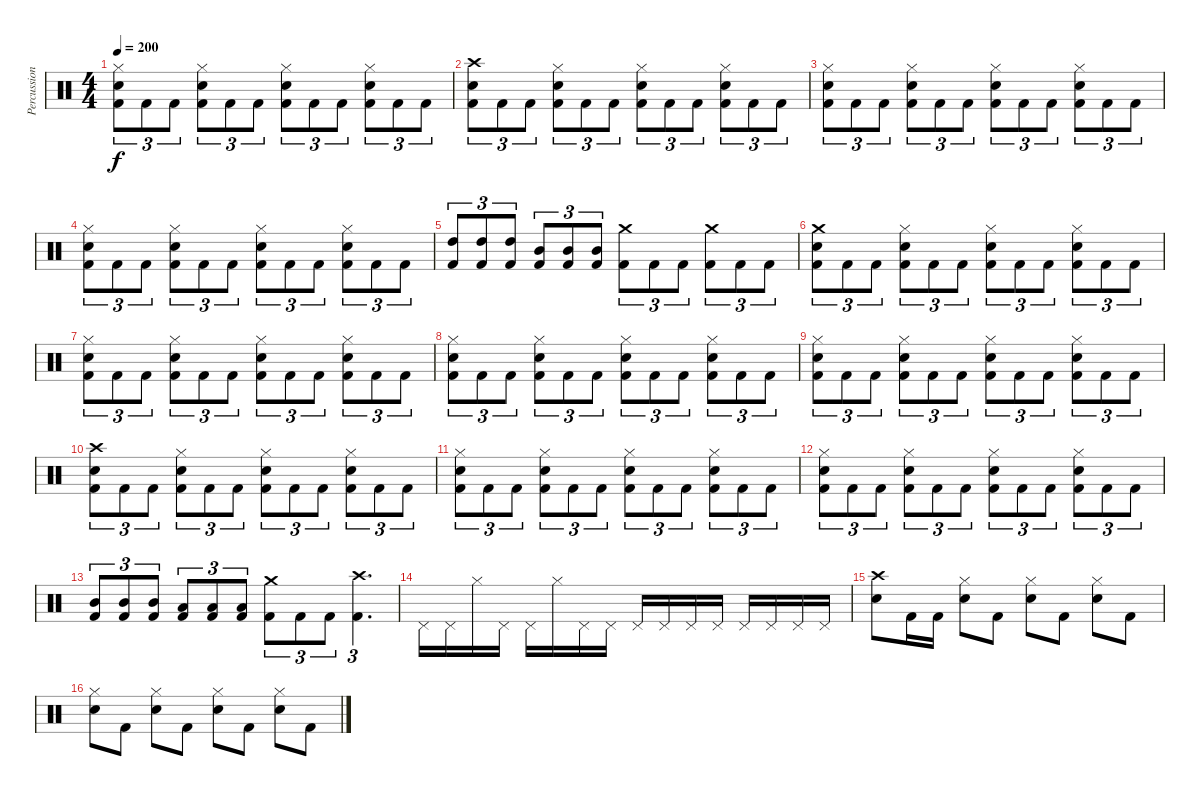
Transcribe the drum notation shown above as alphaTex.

\track ("Percussion" "Percussion") {instrument percussion}
\staff {score}
\articulation defaults
\ts (4 4)
\tempo 200
\clef neutral
\ks c
("Hi-Hat (closed)" "Snare (hit) 2" "Kick (hit) 2").8{tu (3 2) dy f} "Kick (hit) 2".8{tu (3 2)} "Kick (hit) 2".8{tu (3 2)} ("Hi-Hat (closed)" "Snare (hit) 2" "Kick (hit) 2").8{tu (3 2)} "Kick (hit) 2".8{tu (3 2)} "Kick (hit) 2".8{tu (3 2)} ("Hi-Hat (closed)" "Snare (hit) 2" "Kick (hit) 2").8{tu (3 2)} "Kick (hit) 2".8{tu (3 2)} "Kick (hit) 2".8{tu (3 2)} ("Hi-Hat (closed)" "Snare (hit) 2" "Kick (hit) 2").8{tu (3 2)} "Kick (hit) 2".8{tu (3 2)} "Kick (hit) 2".8{tu (3 2)} |
("Crash high (hit)" "Snare (hit) 2" "Kick (hit) 2").8{tu (3 2)} "Kick (hit) 2".8{tu (3 2)} "Kick (hit) 2".8{tu (3 2)} ("Hi-Hat (closed)" "Snare (hit) 2" "Kick (hit) 2").8{tu (3 2)} "Kick (hit) 2".8{tu (3 2)} "Kick (hit) 2".8{tu (3 2)} ("Hi-Hat (closed)" "Snare (hit) 2" "Kick (hit) 2").8{tu (3 2)} "Kick (hit) 2".8{tu (3 2)} "Kick (hit) 2".8{tu (3 2)} ("Hi-Hat (closed)" "Snare (hit) 2" "Kick (hit) 2").8{tu (3 2)} "Kick (hit) 2".8{tu (3 2)} "Kick (hit) 2".8{tu (3 2)} |
("Hi-Hat (closed)" "Snare (hit) 2" "Kick (hit) 2").8{tu (3 2)} "Kick (hit) 2".8{tu (3 2)} "Kick (hit) 2".8{tu (3 2)} ("Hi-Hat (closed)" "Snare (hit) 2" "Kick (hit) 2").8{tu (3 2)} "Kick (hit) 2".8{tu (3 2)} "Kick (hit) 2".8{tu (3 2)} ("Hi-Hat (closed)" "Snare (hit) 2" "Kick (hit) 2").8{tu (3 2)} "Kick (hit) 2".8{tu (3 2)} "Kick (hit) 2".8{tu (3 2)} ("Hi-Hat (closed)" "Snare (hit) 2" "Kick (hit) 2").8{tu (3 2)} "Kick (hit) 2".8{tu (3 2)} "Kick (hit) 2".8{tu (3 2)} |
("Hi-Hat (closed)" "Snare (hit) 2" "Kick (hit) 2").8{tu (3 2)} "Kick (hit) 2".8{tu (3 2)} "Kick (hit) 2".8{tu (3 2)} ("Hi-Hat (closed)" "Snare (hit) 2" "Kick (hit) 2").8{tu (3 2)} "Kick (hit) 2".8{tu (3 2)} "Kick (hit) 2".8{tu (3 2)} ("Hi-Hat (closed)" "Snare (hit) 2" "Kick (hit) 2").8{tu (3 2)} "Kick (hit) 2".8{tu (3 2)} "Kick (hit) 2".8{tu (3 2)} ("Hi-Hat (closed)" "Snare (hit) 2" "Kick (hit) 2").8{tu (3 2)} "Kick (hit) 2".8{tu (3 2)} "Kick (hit) 2".8{tu (3 2)} |
("High Tom (hit)" "Kick (hit) 2").8{tu (3 2)} ("High Tom (hit)" "Kick (hit) 2").8{tu (3 2)} ("High Tom (hit)" "Kick (hit) 2").8{tu (3 2)} ("Mid Tom (hit)" "Kick (hit) 2").8{tu (3 2)} ("Mid Tom (hit)" "Kick (hit) 2").8{tu (3 2)} ("Mid Tom (hit)" "Kick (hit) 2").8{tu (3 2)} ("Crash medium (hit)" "Kick (hit) 2").8{tu (3 2)} "Kick (hit) 2".8{tu (3 2)} "Kick (hit) 2".8{tu (3 2)} ("Crash medium (hit)" "Kick (hit) 2").8{tu (3 2)} "Kick (hit) 2".8{tu (3 2)} "Kick (hit) 2".8{tu (3 2)} |
("Crash medium (hit)" "Snare (hit) 2" "Kick (hit) 2").8{tu (3 2)} "Kick (hit) 2".8{tu (3 2)} "Kick (hit) 2".8{tu (3 2)} ("Hi-Hat (closed)" "Snare (hit) 2" "Kick (hit) 2").8{tu (3 2)} "Kick (hit) 2".8{tu (3 2)} "Kick (hit) 2".8{tu (3 2)} ("Hi-Hat (closed)" "Snare (hit) 2" "Kick (hit) 2").8{tu (3 2)} "Kick (hit) 2".8{tu (3 2)} "Kick (hit) 2".8{tu (3 2)} ("Hi-Hat (closed)" "Snare (hit) 2" "Kick (hit) 2").8{tu (3 2)} "Kick (hit) 2".8{tu (3 2)} "Kick (hit) 2".8{tu (3 2)} |
("Hi-Hat (closed)" "Snare (hit) 2" "Kick (hit) 2").8{tu (3 2)} "Kick (hit) 2".8{tu (3 2)} "Kick (hit) 2".8{tu (3 2)} ("Hi-Hat (closed)" "Snare (hit) 2" "Kick (hit) 2").8{tu (3 2)} "Kick (hit) 2".8{tu (3 2)} "Kick (hit) 2".8{tu (3 2)} ("Hi-Hat (closed)" "Snare (hit) 2" "Kick (hit) 2").8{tu (3 2)} "Kick (hit) 2".8{tu (3 2)} "Kick (hit) 2".8{tu (3 2)} ("Hi-Hat (closed)" "Snare (hit) 2" "Kick (hit) 2").8{tu (3 2)} "Kick (hit) 2".8{tu (3 2)} "Kick (hit) 2".8{tu (3 2)} |
("Hi-Hat (closed)" "Snare (hit) 2" "Kick (hit) 2").8{tu (3 2)} "Kick (hit) 2".8{tu (3 2)} "Kick (hit) 2".8{tu (3 2)} ("Hi-Hat (closed)" "Snare (hit) 2" "Kick (hit) 2").8{tu (3 2)} "Kick (hit) 2".8{tu (3 2)} "Kick (hit) 2".8{tu (3 2)} ("Hi-Hat (closed)" "Snare (hit) 2" "Kick (hit) 2").8{tu (3 2)} "Kick (hit) 2".8{tu (3 2)} "Kick (hit) 2".8{tu (3 2)} ("Hi-Hat (closed)" "Snare (hit) 2" "Kick (hit) 2").8{tu (3 2)} "Kick (hit) 2".8{tu (3 2)} "Kick (hit) 2".8{tu (3 2)} |
("Hi-Hat (closed)" "Snare (hit) 2" "Kick (hit) 2").8{tu (3 2)} "Kick (hit) 2".8{tu (3 2)} "Kick (hit) 2".8{tu (3 2)} ("Hi-Hat (closed)" "Snare (hit) 2" "Kick (hit) 2").8{tu (3 2)} "Kick (hit) 2".8{tu (3 2)} "Kick (hit) 2".8{tu (3 2)} ("Hi-Hat (closed)" "Snare (hit) 2" "Kick (hit) 2").8{tu (3 2)} "Kick (hit) 2".8{tu (3 2)} "Kick (hit) 2".8{tu (3 2)} ("Hi-Hat (closed)" "Snare (hit) 2" "Kick (hit) 2").8{tu (3 2)} "Kick (hit) 2".8{tu (3 2)} "Kick (hit) 2".8{tu (3 2)} |
("Crash high (hit)" "Snare (hit) 2" "Kick (hit) 2").8{tu (3 2)} "Kick (hit) 2".8{tu (3 2)} "Kick (hit) 2".8{tu (3 2)} ("Hi-Hat (closed)" "Snare (hit) 2" "Kick (hit) 2").8{tu (3 2)} "Kick (hit) 2".8{tu (3 2)} "Kick (hit) 2".8{tu (3 2)} ("Hi-Hat (closed)" "Snare (hit) 2" "Kick (hit) 2").8{tu (3 2)} "Kick (hit) 2".8{tu (3 2)} "Kick (hit) 2".8{tu (3 2)} ("Hi-Hat (closed)" "Snare (hit) 2" "Kick (hit) 2").8{tu (3 2)} "Kick (hit) 2".8{tu (3 2)} "Kick (hit) 2".8{tu (3 2)} |
("Hi-Hat (closed)" "Snare (hit) 2" "Kick (hit) 2").8{tu (3 2)} "Kick (hit) 2".8{tu (3 2)} "Kick (hit) 2".8{tu (3 2)} ("Hi-Hat (closed)" "Snare (hit) 2" "Kick (hit) 2").8{tu (3 2)} "Kick (hit) 2".8{tu (3 2)} "Kick (hit) 2".8{tu (3 2)} ("Hi-Hat (closed)" "Snare (hit) 2" "Kick (hit) 2").8{tu (3 2)} "Kick (hit) 2".8{tu (3 2)} "Kick (hit) 2".8{tu (3 2)} ("Hi-Hat (closed)" "Snare (hit) 2" "Kick (hit) 2").8{tu (3 2)} "Kick (hit) 2".8{tu (3 2)} "Kick (hit) 2".8{tu (3 2)} |
("Hi-Hat (closed)" "Snare (hit) 2" "Kick (hit) 2").8{tu (3 2)} "Kick (hit) 2".8{tu (3 2)} "Kick (hit) 2".8{tu (3 2)} ("Hi-Hat (closed)" "Snare (hit) 2" "Kick (hit) 2").8{tu (3 2)} "Kick (hit) 2".8{tu (3 2)} "Kick (hit) 2".8{tu (3 2)} ("Hi-Hat (closed)" "Snare (hit) 2" "Kick (hit) 2").8{tu (3 2)} "Kick (hit) 2".8{tu (3 2)} "Kick (hit) 2".8{tu (3 2)} ("Hi-Hat (closed)" "Snare (hit) 2" "Kick (hit) 2").8{tu (3 2)} "Kick (hit) 2".8{tu (3 2)} "Kick (hit) 2".8{tu (3 2)} |
("Mid Tom (hit)" "Kick (hit) 2").8{tu (3 2)} ("Mid Tom (hit)" "Kick (hit) 2").8{tu (3 2)} ("Mid Tom (hit)" "Kick (hit) 2").8{tu (3 2)} ("Low Tom (hit)" "Kick (hit) 2").8{tu (3 2)} ("Low Tom (hit)" "Kick (hit) 2").8{tu (3 2)} ("Low Tom (hit)" "Kick (hit) 2").8{tu (3 2)} ("Crash medium (hit)" "Kick (hit) 2").8{tu (3 2)} "Kick (hit) 2".8{tu (3 2)} "Kick (hit) 2".8{tu (3 2)} ("Crash high (hit)" "Kick (hit) 2").4{d tu (3 2)} |
"Pedal Hi-Hat (hit)".16 "Pedal Hi-Hat (hit)".16 "Hi-Hat (closed)".16 "Pedal Hi-Hat (hit)".16 "Pedal Hi-Hat (hit)".16 "Hi-Hat (closed)".16 "Pedal Hi-Hat (hit)".16 "Pedal Hi-Hat (hit)".16 "Pedal Hi-Hat (hit)".16 "Pedal Hi-Hat (hit)".16 "Pedal Hi-Hat (hit)".16 "Pedal Hi-Hat (hit)".16 "Pedal Hi-Hat (hit)".16 "Pedal Hi-Hat (hit)".16 "Pedal Hi-Hat (hit)".16 "Pedal Hi-Hat (hit)".16 |
("Crash high (hit)" "Snare (hit) 2").8 "Kick (hit) 2".16 "Kick (hit) 2".16 ("Hi-Hat (closed)" "Snare (hit) 2").8 "Kick (hit) 2".8 ("Hi-Hat (closed)" "Snare (hit) 2").8 "Kick (hit) 2".8 ("Hi-Hat (closed)" "Snare (hit) 2").8 "Kick (hit) 2".8 |
("Hi-Hat (closed)" "Snare (hit) 2").8 "Kick (hit) 2".8 ("Hi-Hat (closed)" "Snare (hit) 2").8 "Kick (hit) 2".8 ("Hi-Hat (closed)" "Snare (hit) 2").8 "Kick (hit) 2".8 ("Hi-Hat (closed)" "Snare (hit) 2").8 "Kick (hit) 2".8
